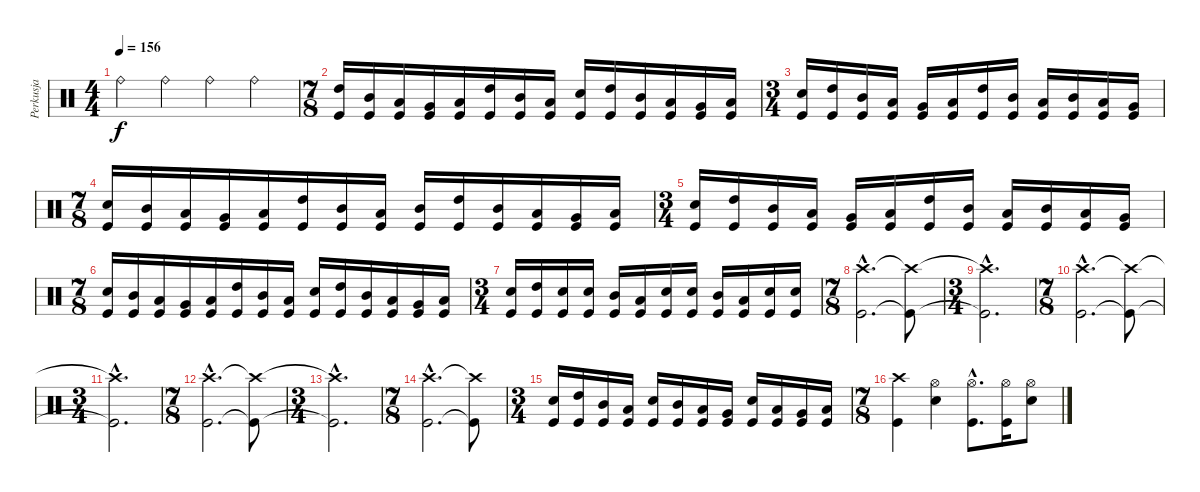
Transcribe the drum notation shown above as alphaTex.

\track ("Perkusja" "Perkusja") {instrument percussion}
\staff {score}
\articulation defaults
\ts (4 4)
\tempo 156
\clef neutral
\ks c "Ride (bell)".4{dy f} "Ride (bell)".4 "Ride (bell)".4 "Ride (bell)".4
|
\ts (7 8)
("High Tom (hit)" "Kick (hit)").16 ("Mid Tom (hit)" "Kick (hit)").16 ("Low Tom (hit)" "Kick (hit)").16 ("Very Low Tom (hit)" "Kick (hit)").16 ("Low Floor Tom (hit)" "Kick (hit)").16 ("High Tom (hit)" "Kick (hit)").16 ("Mid Tom (hit)" "Kick (hit)").16 ("Low Tom (hit)" "Kick (hit)").16 ("Snare (hit) 2" "Kick (hit)").16 ("High Tom (hit)" "Kick (hit)").16 ("Mid Tom (hit)" "Kick (hit)").16 ("Low Tom (hit)" "Kick (hit)").16 ("Very Low Tom (hit)" "Kick (hit)").16 ("Low Floor Tom (hit)" "Kick (hit)").16 |
\ts (3 4)
("Snare (hit) 2" "Kick (hit)").16 ("High Tom (hit)" "Kick (hit)").16 ("Mid Tom (hit)" "Kick (hit)").16 ("Low Tom (hit)" "Kick (hit)").16 ("Very Low Tom (hit)" "Kick (hit)").16 ("Low Floor Tom (hit)" "Kick (hit)").16 ("High Tom (hit)" "Kick (hit)").16 ("Mid Tom (hit)" "Kick (hit)").16 ("Low Tom (hit)" "Kick (hit)").16 ("Mid Tom (hit)" "Kick (hit)").16 ("Low Tom (hit)" "Kick (hit)").16 ("Very Low Tom (hit)" "Kick (hit)").16 |
\ts (7 8)
("Snare (hit) 2" "Kick (hit)").16 ("Mid Tom (hit)" "Kick (hit)").16 ("Low Tom (hit)" "Kick (hit)").16 ("Very Low Tom (hit)" "Kick (hit)").16 ("Low Floor Tom (hit)" "Kick (hit)").16 ("High Tom (hit)" "Kick (hit)").16 ("Mid Tom (hit)" "Kick (hit)").16 ("Low Tom (hit)" "Kick (hit)").16 ("Mid Tom (hit)" "Kick (hit)").16 ("High Tom (hit)" "Kick (hit)").16 ("Mid Tom (hit)" "Kick (hit)").16 ("Low Tom (hit)" "Kick (hit)").16 ("Very Low Tom (hit)" "Kick (hit)").16 ("Low Floor Tom (hit)" "Kick (hit)").16 |
\ts (3 4)
("Snare (hit) 2" "Kick (hit)").16 ("High Tom (hit)" "Kick (hit)").16 ("Mid Tom (hit)" "Kick (hit)").16 ("Low Tom (hit)" "Kick (hit)").16 ("Very Low Tom (hit)" "Kick (hit)").16 ("Low Floor Tom (hit)" "Kick (hit)").16 ("High Tom (hit)" "Kick (hit)").16 ("Mid Tom (hit)" "Kick (hit)").16 ("Low Tom (hit)" "Kick (hit)").16 ("Mid Tom (hit)" "Kick (hit)").16 ("Low Tom (hit)" "Kick (hit)").16 ("Very Low Tom (hit)" "Kick (hit)").16 |
\ts (7 8)
("Snare (hit) 2" "Kick (hit)").16 ("Mid Tom (hit)" "Kick (hit)").16 ("Low Tom (hit)" "Kick (hit)").16 ("Very Low Tom (hit)" "Kick (hit)").16 ("Low Floor Tom (hit)" "Kick (hit)").16 ("High Tom (hit)" "Kick (hit)").16 ("Mid Tom (hit)" "Kick (hit)").16 ("Low Tom (hit)" "Kick (hit)").16 ("Snare (hit) 2" "Kick (hit)").16 ("High Tom (hit)" "Kick (hit)").16 ("Mid Tom (hit)" "Kick (hit)").16 ("Low Tom (hit)" "Kick (hit)").16 ("Very Low Tom (hit)" "Kick (hit)").16 ("Low Floor Tom (hit)" "Kick (hit)").16 |
\ts (3 4)
("Snare (hit) 2" "Kick (hit)").16 ("High Tom (hit)" "Kick (hit)").16 ("Snare (hit) 2" "Kick (hit)").16 ("Snare (hit) 2" "Kick (hit)").16 ("Mid Tom (hit)" "Kick (hit)").16 ("Low Tom (hit)" "Kick (hit)").16 ("Snare (hit) 2" "Kick (hit)").16 ("Snare (hit) 2" "Kick (hit)").16 ("Mid Tom (hit)" "Kick (hit)").16 ("Low Tom (hit)" "Kick (hit)").16 ("Snare (hit) 2" "Kick (hit)").16 ("Snare (hit) 2" "Kick (hit)").16 |
\ts (7 8)
("Crash high (hit)"{hac} "Kick (hit)"{hac}).2{d} ("Crash high (hit)"{t} "Kick (hit)"{t}).8 |
\ts (3 4)
("Crash high (hit)"{hac t} "Kick (hit)"{hac t}).2{d} |
\ts (7 8)
("Crash high (hit)"{hac} "Kick (hit)"{hac}).2{d} ("Crash high (hit)"{t} "Kick (hit)"{t}).8 |
\ts (3 4)
("Crash high (hit)"{hac t} "Kick (hit)"{hac t}).2{d} |
\ts (7 8)
("Crash high (hit)"{hac} "Kick (hit)"{hac}).2{d} ("Crash high (hit)"{t} "Kick (hit)"{t}).8 |
\ts (3 4)
("Crash high (hit)"{hac t} "Kick (hit)"{hac t}).2{d} |
\ts (7 8)
("Crash high (hit)"{hac} "Kick (hit)"{hac}).2{d} ("Crash high (hit)"{t} "Kick (hit)"{t}).8 |
\ts (3 4)
("Snare (hit) 2" "Kick (hit)").16 ("High Tom (hit)" "Kick (hit)").16 ("Mid Tom (hit)" "Kick (hit)").16 ("Low Tom (hit)" "Kick (hit)").16 ("Snare (hit) 2" "Kick (hit)").16 ("Mid Tom (hit)" "Kick (hit)").16 ("Low Tom (hit)" "Kick (hit)").16 ("Very Low Tom (hit)" "Kick (hit)").16 ("Snare (hit) 2" "Kick (hit)").16 ("Low Tom (hit)" "Kick (hit)").16 ("Very Low Tom (hit)" "Kick (hit)").16 ("Low Floor Tom (hit)" "Kick (hit)").16 |
\ts (7 8)
("Crash high (hit)" "Kick (hit)").4 ("Hi-Hat (open)" "Snare (hit) 2").4 ("Hi-Hat (open)"{hac} "Kick (hit)"{hac}).8{d} ("Hi-Hat (open)" "Kick (hit)").16 ("Hi-Hat (open)" "Snare (hit) 2").8
